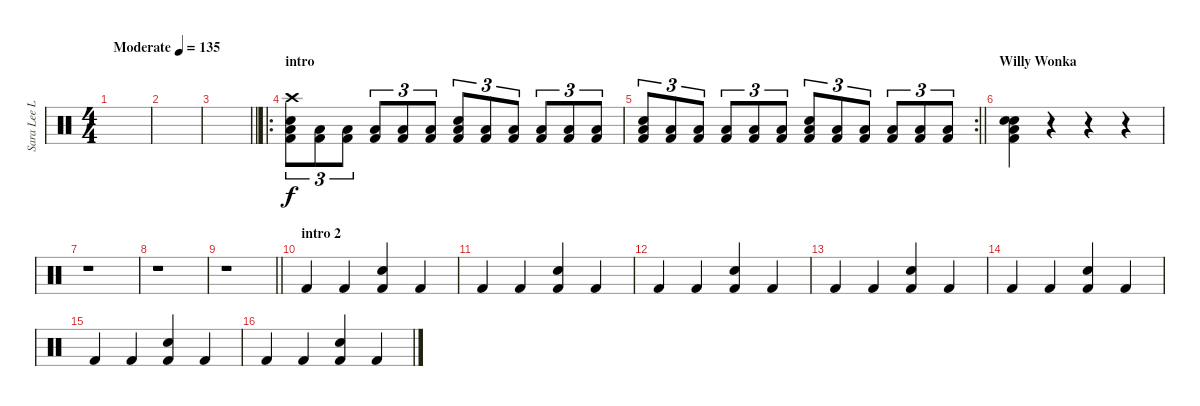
\track ("Sara Lee Lucas" "Sara Lee L") {instrument percussion}
\staff {score}
\articulation defaults
\ts (4 4)
\tempo (135 "Moderate")
\clef neutral
\ks c
|
|
\barLineRight lightlight
|
\ro
\section ("" "intro")
("Crash high (hit)" "Snare (hit) 2" "Low Tom (hit)" "Kick (hit) 2").8{tu (3 2)} ("Low Tom (hit)" "Kick (hit) 2").8{tu (3 2)} ("Low Tom (hit)" "Kick (hit) 2").8{tu (3 2)} ("Low Tom (hit)" "Kick (hit) 2").8{tu (3 2)} ("Low Tom (hit)" "Kick (hit) 2").8{tu (3 2)} ("Low Tom (hit)" "Kick (hit) 2").8{tu (3 2)} ("Snare (hit) 2" "Low Tom (hit)" "Kick (hit) 2").8{tu (3 2)} ("Low Tom (hit)" "Kick (hit) 2").8{tu (3 2)} ("Low Tom (hit)" "Kick (hit) 2").8{tu (3 2)} ("Low Tom (hit)" "Kick (hit) 2").8{tu (3 2)} ("Low Tom (hit)" "Kick (hit) 2").8{tu (3 2)} ("Low Tom (hit)" "Kick (hit) 2").8{tu (3 2)} |
\rc 2
\barLineRight lightlight
("Snare (hit) 2" "Low Tom (hit)" "Kick (hit) 2").8{tu (3 2)} ("Low Tom (hit)" "Kick (hit) 2").8{tu (3 2)} ("Low Tom (hit)" "Kick (hit) 2").8{tu (3 2)} ("Low Tom (hit)" "Kick (hit) 2").8{tu (3 2)} ("Low Tom (hit)" "Kick (hit) 2").8{tu (3 2)} ("Low Tom (hit)" "Kick (hit) 2").8{tu (3 2)} ("Snare (hit) 2" "Low Tom (hit)" "Kick (hit) 2").8{tu (3 2)} ("Low Tom (hit)" "Kick (hit) 2").8{tu (3 2)} ("Low Tom (hit)" "Kick (hit) 2").8{tu (3 2)} ("Low Tom (hit)" "Kick (hit) 2").8{tu (3 2)} ("Low Tom (hit)" "Kick (hit) 2").8{tu (3 2)} ("Low Tom (hit)" "Kick (hit) 2").8{tu (3 2)} |
\section ("" "Willy Wonka")
("Electric Snare (hit)" "Snare (hit) 2" "Low Tom (hit)" "Kick (hit) 2").4 r.4 r.4 r.4 |
r.1 |
r.1 |
\barLineRight lightlight
r.1 |
\section ("" "intro 2")
"Kick (hit) 2".4 "Kick (hit) 2".4 ("Snare (hit) 2" "Kick (hit) 2").4 "Kick (hit) 2".4 |
"Kick (hit) 2".4 "Kick (hit) 2".4 ("Snare (hit) 2" "Kick (hit) 2").4 "Kick (hit) 2".4 |
"Kick (hit) 2".4 "Kick (hit) 2".4 ("Snare (hit) 2" "Kick (hit) 2").4 "Kick (hit) 2".4 |
"Kick (hit) 2".4 "Kick (hit) 2".4 ("Snare (hit) 2" "Kick (hit) 2").4 "Kick (hit) 2".4 |
"Kick (hit) 2".4 "Kick (hit) 2".4 ("Snare (hit) 2" "Kick (hit) 2").4 "Kick (hit) 2".4 |
"Kick (hit) 2".4 "Kick (hit) 2".4 ("Snare (hit) 2" "Kick (hit) 2").4 "Kick (hit) 2".4 |
"Kick (hit) 2".4 "Kick (hit) 2".4 ("Snare (hit) 2" "Kick (hit) 2").4 "Kick (hit) 2".4
